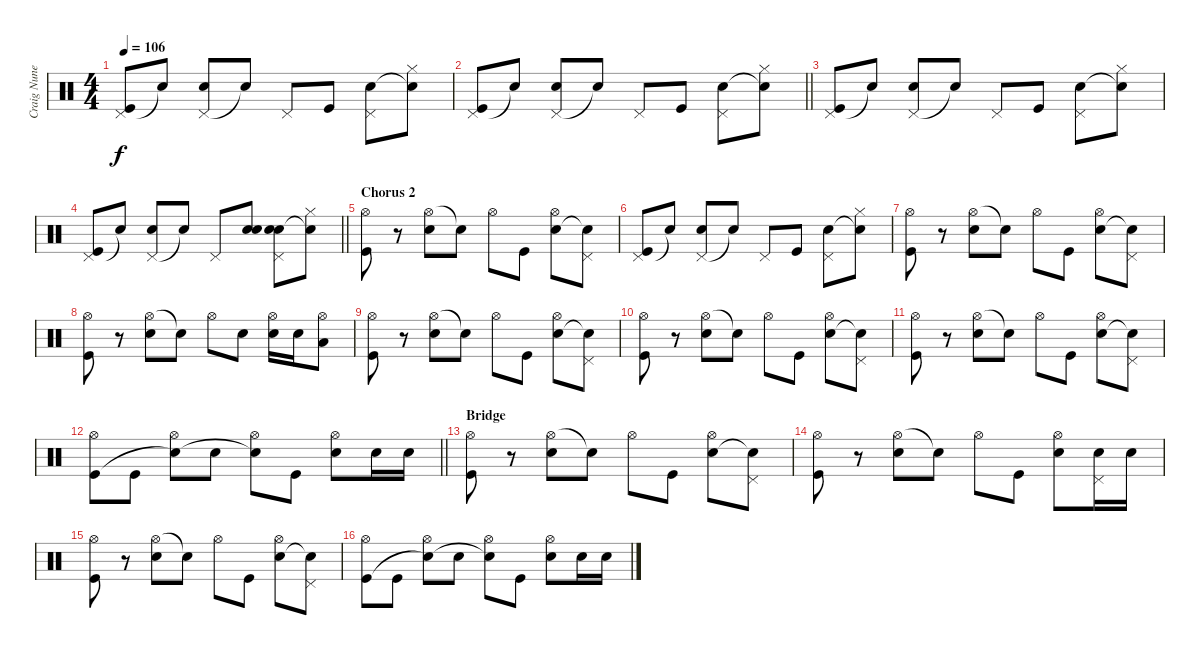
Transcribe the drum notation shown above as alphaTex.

\track ("Craig Nunenmacher (Drums)" "Craig Nune") {instrument percussion}
\staff {score}
\articulation defaults
\ts (4 4)
\tempo 106
\clef neutral
\ks c
("Pedal Hi-Hat (hit)" "Kick (hit)").8{dy f} "Snare (hit)"{t}.8 ("Pedal Hi-Hat (hit)" "Electric Snare (hit)").8 "Snare (hit)"{t}.8 "Pedal Hi-Hat (hit)".8 "Kick (hit)".8 ("Pedal Hi-Hat (hit)" "Electric Snare (hit)").8 ("Hi-Hat (closed)" "Snare (hit)"{t}).8 |
\barLineRight lightlight
("Pedal Hi-Hat (hit)" "Kick (hit)").8 "Snare (hit)"{t}.8 ("Pedal Hi-Hat (hit)" "Electric Snare (hit)").8 "Snare (hit)"{t}.8 "Pedal Hi-Hat (hit)".8 "Kick (hit)".8 ("Pedal Hi-Hat (hit)" "Electric Snare (hit)").8 ("Hi-Hat (closed)" "Snare (hit)"{t}).8 |
("Pedal Hi-Hat (hit)" "Kick (hit)").8 "Snare (hit)"{t}.8 ("Pedal Hi-Hat (hit)" "Electric Snare (hit)").8 "Snare (hit)"{t}.8 "Pedal Hi-Hat (hit)".8 "Kick (hit)".8 ("Pedal Hi-Hat (hit)" "Electric Snare (hit)").8 ("Hi-Hat (closed)" "Snare (hit)"{t}).8 |
\barLineRight lightlight
("Pedal Hi-Hat (hit)" "Kick (hit)").8 "Snare (hit)"{t}.8 ("Pedal Hi-Hat (hit)" "Electric Snare (hit)").8 "Snare (hit)"{t}.8 "Pedal Hi-Hat (hit)".8 ("Electric Snare (hit)" "Electric Snare (hit)").8 ("Pedal Hi-Hat (hit)" "Electric Snare (hit)" "Electric Snare (hit)").8 ("Hi-Hat (closed)" "Snare (hit)"{t}).8 |
\section ("" "Chorus 2")
("Hi-Hat (open)" "Kick (hit)").8 r.8 ("Hi-Hat (open)" "Electric Snare (hit)").8 "Snare (hit)"{t}.8 "Hi-Hat (open)".8 "Kick (hit)".8 ("Hi-Hat (open)" "Electric Snare (hit)").8 ("Pedal Hi-Hat (hit)" "Snare (hit)"{t}).8 |
("Pedal Hi-Hat (hit)" "Kick (hit)").8 "Snare (hit)"{t}.8 ("Pedal Hi-Hat (hit)" "Electric Snare (hit)").8 "Snare (hit)"{t}.8 "Pedal Hi-Hat (hit)".8 "Kick (hit)".8 ("Pedal Hi-Hat (hit)" "Electric Snare (hit)").8 ("Hi-Hat (closed)" "Snare (hit)"{t}).8 |
("Hi-Hat (open)" "Kick (hit)").8 r.8 ("Hi-Hat (open)" "Electric Snare (hit)").8 "Snare (hit)"{t}.8 "Hi-Hat (open)".8 "Kick (hit)".8 ("Hi-Hat (open)" "Electric Snare (hit)").8 ("Pedal Hi-Hat (hit)" "Snare (hit)"{t}).8 |
("Hi-Hat (open)" "Kick (hit)").8 r.8 ("Hi-Hat (open)" "Electric Snare (hit)").8 "Snare (hit)"{t}.8 "Hi-Hat (open)".8 "Electric Snare (hit)".8 ("Hi-Hat (open)" "Electric Snare (hit)").16 "Electric Snare (hit)".16 ("Hi-Hat (open)" "Low Floor Tom (hit)").8 |
("Hi-Hat (open)" "Kick (hit)").8 r.8 ("Hi-Hat (open)" "Electric Snare (hit)").8 "Snare (hit)"{t}.8 "Hi-Hat (open)".8 "Kick (hit)".8 ("Hi-Hat (open)" "Electric Snare (hit)").8 ("Pedal Hi-Hat (hit)" "Snare (hit)"{t}).8 |
("Hi-Hat (open)" "Kick (hit)").8 r.8 ("Hi-Hat (open)" "Electric Snare (hit)").8 "Snare (hit)"{t}.8 "Hi-Hat (open)".8 "Kick (hit)".8 ("Hi-Hat (open)" "Electric Snare (hit)").8 ("Pedal Hi-Hat (hit)" "Snare (hit)"{t}).8 |
("Hi-Hat (open)" "Kick (hit)").8 r.8 ("Hi-Hat (open)" "Electric Snare (hit)").8 "Snare (hit)"{t}.8 "Hi-Hat (open)".8 "Kick (hit)".8 ("Hi-Hat (open)" "Electric Snare (hit)").8 ("Pedal Hi-Hat (hit)" "Snare (hit)"{t}).8 |
\barLineRight lightlight
("Hi-Hat (open)" "Kick (hit)").8 "Kick (hit)".8 ("Hi-Hat (open)" "Snare (hit)"{t}).8 "Electric Snare (hit)".8 ("Hi-Hat (open)" "Snare (hit)"{t}).8 "Kick (hit)".8 ("Hi-Hat (open)" "Electric Snare (hit)").8 "Electric Snare (hit)".16 "Electric Snare (hit)".16 |
\section ("" "Bridge")
("Hi-Hat (open)" "Kick (hit)").8 r.8 ("Hi-Hat (open)" "Electric Snare (hit)").8 "Snare (hit)"{t}.8 "Hi-Hat (open)".8 "Kick (hit)".8 ("Hi-Hat (open)" "Electric Snare (hit)").8 ("Pedal Hi-Hat (hit)" "Snare (hit)"{t}).8 |
("Hi-Hat (open)" "Kick (hit)").8 r.8 ("Hi-Hat (open)" "Electric Snare (hit)").8 "Snare (hit)"{t}.8 "Hi-Hat (open)".8 "Kick (hit)".8 ("Hi-Hat (open)" "Electric Snare (hit)").8 ("Pedal Hi-Hat (hit)" "Electric Snare (hit)").16 "Electric Snare (hit)".16 |
("Hi-Hat (open)" "Kick (hit)").8 r.8 ("Hi-Hat (open)" "Electric Snare (hit)").8 "Snare (hit)"{t}.8 "Hi-Hat (open)".8 "Kick (hit)".8 ("Hi-Hat (open)" "Electric Snare (hit)").8 ("Pedal Hi-Hat (hit)" "Snare (hit)"{t}).8 |
("Hi-Hat (open)" "Kick (hit)").8 "Kick (hit)".8 ("Hi-Hat (open)" "Snare (hit)"{t}).8 "Electric Snare (hit)".8 ("Hi-Hat (open)" "Snare (hit)"{t}).8 "Kick (hit)".8 ("Hi-Hat (open)" "Electric Snare (hit)").8 "Electric Snare (hit)".16 "Electric Snare (hit)".16
